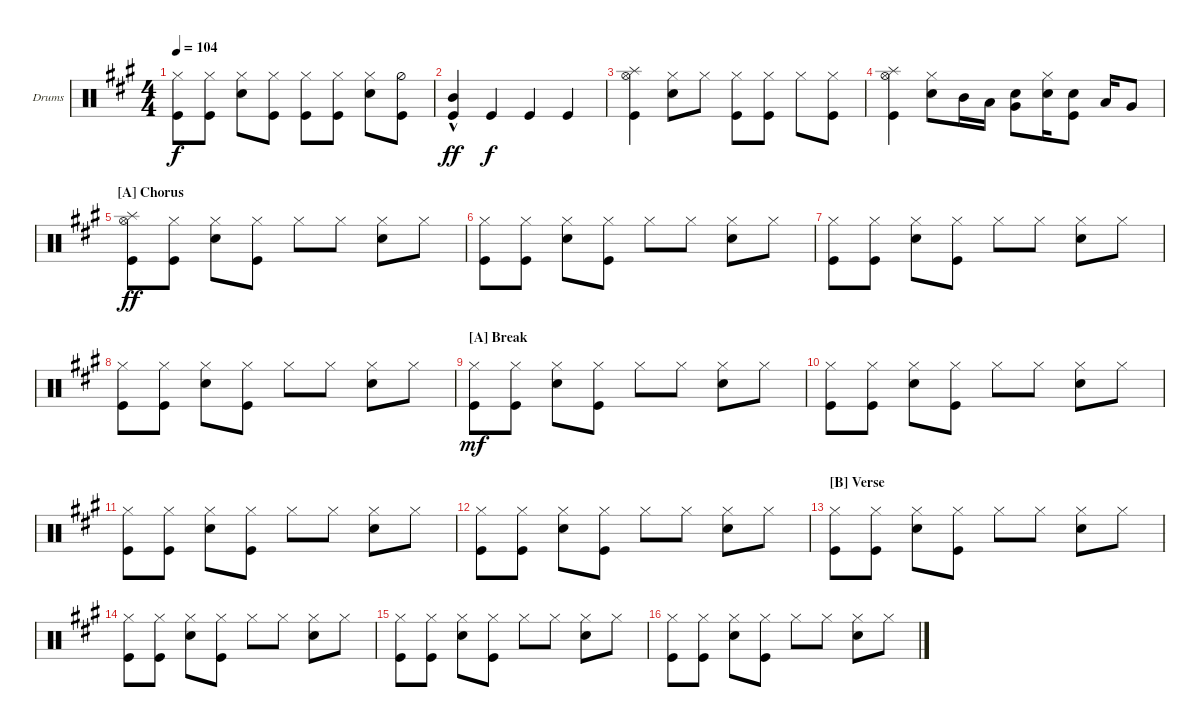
\defaultSystemsLayout 4
\bracketExtendMode groupsimilarinstruments
\firstSystemTrackNameOrientation horizontal
\otherSystemsTrackNameOrientation horizontal
\track ("Drumkit" "Drums") {instrument percussion}
\staff {score}
\articulation defaults
\ts (4 4)
\tempo 104
\clef neutral
\scale
0.333333
\ks a
("Kick (hit)"{t} "Hi-Hat (closed)").8{dy f} ("Kick (hit)" "Hi-Hat (closed)").8 ("Snare (hit) 2" "Hi-Hat (closed)").8 ("Kick (hit)" "Hi-Hat (closed)").8 ("Kick (hit)" "Hi-Hat (closed)").8 ("Kick (hit)" "Hi-Hat (closed)").8 ("Snare (hit) 2" "Hi-Hat (closed)").8 ("Kick (hit)" "Hi-Hat (half)").8 |
\scale
0.333333 ("Mid Tom (hit)"{hac} "Kick (hit)"{hac}).4{dy ff} "Kick (hit)".4{dy f} "Kick (hit)".4 "Kick (hit)".4 |
\scale
0.333333 ("Splash (hit)" "Hi-Hat (open)" "Kick (hit)").4 ("Hi-Hat (closed)" "Snare (hit) 2").8 "Hi-Hat (closed)".8 ("Hi-Hat (closed)" "Kick (hit)").8 ("Hi-Hat (closed)" "Kick (hit)").8 "Hi-Hat (closed)".8 ("Hi-Hat (closed)" "Kick (hit)").8 |
\scale
0.333333 ("Splash (hit)" "Hi-Hat (open)" "Kick (hit)").4 ("Hi-Hat (closed)" "Snare (hit) 2").8 "Mid Tom (hit)".16 "Low Tom (hit)".16 ("Very Low Tom (hit)" "Snare (hit) 2").8 ("Hi-Hat (closed)" "Snare (hit) 2").16 ("Kick (hit)" "Snare (hit) 2").8 "Low Tom (hit)".16 "Very Low Tom (hit)".8 |
\section ("A" "Chorus")
\scale
0.333333 ("Hi-Hat (open)" "Kick (hit)" "Splash (hit)").8{dy ff} ("Hi-Hat (closed)" "Kick (hit)").8 ("Hi-Hat (closed)" "Snare (hit) 2").8 ("Hi-Hat (closed)" "Kick (hit)").8 "Hi-Hat (closed)".8 "Hi-Hat (closed)".8 ("Hi-Hat (closed)" "Snare (hit) 2").8 "Hi-Hat (closed)".8 |
\scale
0.333333 ("Hi-Hat (closed)" "Kick (hit)").8 ("Hi-Hat (closed)" "Kick (hit)").8 ("Hi-Hat (closed)" "Snare (hit) 2").8 ("Hi-Hat (closed)" "Kick (hit)").8 "Hi-Hat (closed)".8 "Hi-Hat (closed)".8 ("Hi-Hat (closed)" "Snare (hit) 2").8 "Hi-Hat (closed)".8 |
\scale
0.333333 ("Hi-Hat (closed)" "Kick (hit)").8 ("Hi-Hat (closed)" "Kick (hit)").8 ("Hi-Hat (closed)" "Snare (hit) 2").8 ("Hi-Hat (closed)" "Kick (hit)").8 "Hi-Hat (closed)".8 "Hi-Hat (closed)".8 ("Hi-Hat (closed)" "Snare (hit) 2").8 "Hi-Hat (closed)".8 |
\scale
0.333333 ("Hi-Hat (closed)" "Kick (hit)").8 ("Hi-Hat (closed)" "Kick (hit)").8 ("Hi-Hat (closed)" "Snare (hit) 2").8 ("Hi-Hat (closed)" "Kick (hit)").8 "Hi-Hat (closed)".8 "Hi-Hat (closed)".8 ("Hi-Hat (closed)" "Snare (hit) 2").8 "Hi-Hat (closed)".8 |
\section ("A" "Break")
\scale
0.333333 ("Hi-Hat (closed)" "Kick (hit)").8{dy mf} ("Hi-Hat (closed)" "Kick (hit)").8 ("Hi-Hat (closed)" "Snare (hit) 2").8 ("Hi-Hat (closed)" "Kick (hit)").8 "Hi-Hat (closed)".8 "Hi-Hat (closed)".8 ("Hi-Hat (closed)" "Snare (hit) 2").8 "Hi-Hat (closed)".8 |
\scale
0.333333 ("Hi-Hat (closed)" "Kick (hit)").8 ("Hi-Hat (closed)" "Kick (hit)").8 ("Hi-Hat (closed)" "Snare (hit) 2").8 ("Hi-Hat (closed)" "Kick (hit)").8 "Hi-Hat (closed)".8 "Hi-Hat (closed)".8 ("Hi-Hat (closed)" "Snare (hit) 2").8 "Hi-Hat (closed)".8 |
\scale
0.333333 ("Hi-Hat (closed)" "Kick (hit)").8 ("Hi-Hat (closed)" "Kick (hit)").8 ("Hi-Hat (closed)" "Snare (hit) 2").8 ("Hi-Hat (closed)" "Kick (hit)").8 "Hi-Hat (closed)".8 "Hi-Hat (closed)".8 ("Hi-Hat (closed)" "Snare (hit) 2").8 "Hi-Hat (closed)".8 |
\scale
0.333333 ("Hi-Hat (closed)" "Kick (hit)").8 ("Hi-Hat (closed)" "Kick (hit)").8 ("Hi-Hat (closed)" "Snare (hit) 2").8 ("Hi-Hat (closed)" "Kick (hit)").8 "Hi-Hat (closed)".8 "Hi-Hat (closed)".8 ("Hi-Hat (closed)" "Snare (hit) 2").8 "Hi-Hat (closed)".8 |
\section ("B" "Verse")
("Hi-Hat (closed)" "Kick (hit)").8 ("Hi-Hat (closed)" "Kick (hit)").8 ("Hi-Hat (closed)" "Snare (hit) 2").8 ("Hi-Hat (closed)" "Kick (hit)").8 "Hi-Hat (closed)".8 "Hi-Hat (closed)".8 ("Hi-Hat (closed)" "Snare (hit) 2").8 "Hi-Hat (closed)".8 |
("Hi-Hat (closed)" "Kick (hit)").8 ("Hi-Hat (closed)" "Kick (hit)").8 ("Hi-Hat (closed)" "Snare (hit) 2").8 ("Hi-Hat (closed)" "Kick (hit)").8 "Hi-Hat (closed)".8 "Hi-Hat (closed)".8 ("Hi-Hat (closed)" "Snare (hit) 2").8 "Hi-Hat (closed)".8 |
("Hi-Hat (closed)" "Kick (hit)").8 ("Hi-Hat (closed)" "Kick (hit)").8 ("Hi-Hat (closed)" "Snare (hit) 2").8 ("Hi-Hat (closed)" "Kick (hit)").8 "Hi-Hat (closed)".8 "Hi-Hat (closed)".8 ("Hi-Hat (closed)" "Snare (hit) 2").8 "Hi-Hat (closed)".8 |
("Hi-Hat (closed)" "Kick (hit)").8 ("Hi-Hat (closed)" "Kick (hit)").8 ("Hi-Hat (closed)" "Snare (hit) 2").8 ("Hi-Hat (closed)" "Kick (hit)").8 "Hi-Hat (closed)".8 "Hi-Hat (closed)".8 ("Hi-Hat (closed)" "Snare (hit) 2").8 "Hi-Hat (closed)".8
